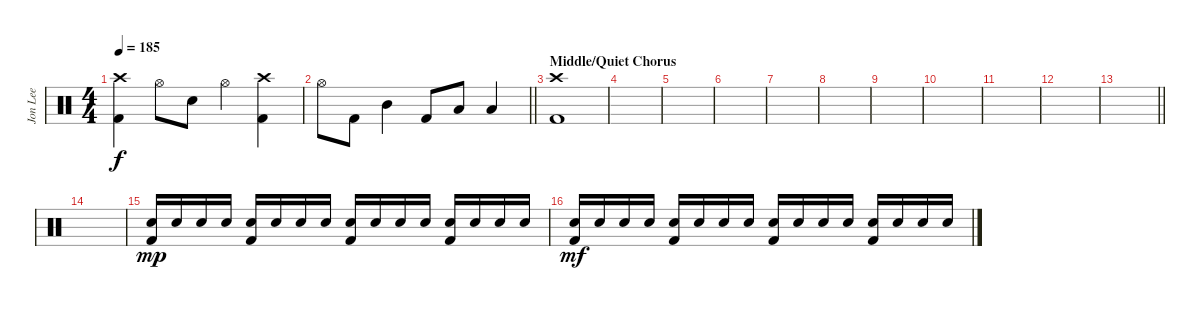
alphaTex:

\track ("Jon Lee" "Jon Lee") {instrument percussion bank 10}
\staff {score}
\articulation defaults
\ts (4 4)
\tempo 185
\clef neutral
\ks c
("Crash high (hit)" "Kick (hit) 2").4{dy f} "Hi-Hat (open)".8 "Snare (hit) 2".8 "Hi-Hat (open)".4 ("Kick (hit) 2" "Crash high (hit)").4 |
\barLineRight lightlight "Hi-Hat (open)".8 "Kick (hit) 2".8 "Mid Tom (hit)".4 "Kick (hit) 2".8 "Low Floor Tom (hit)".8 "Low Floor Tom (hit)".4
|
\section ("" "Middle/Quiet Chorus")
("Kick (hit) 2" "Crash high (hit)").1 |
|
|
|
|
|
|
|
|
|
\barLineRight lightlight
|
|
("Snare (hit) 2" "Kick (hit) 2").16{dy mp} "Snare (hit) 2".16 "Snare (hit) 2".16 "Snare (hit) 2".16 ("Snare (hit) 2" "Kick (hit) 2").16 "Snare (hit) 2".16 "Snare (hit) 2".16 "Snare (hit) 2".16 ("Snare (hit) 2" "Kick (hit) 2").16 "Snare (hit) 2".16 "Snare (hit) 2".16 "Snare (hit) 2".16 ("Snare (hit) 2" "Kick (hit) 2").16 "Snare (hit) 2".16 "Snare (hit) 2".16 "Snare (hit) 2".16 |
("Snare (hit) 2" "Kick (hit) 2").16{dy mf} "Snare (hit) 2".16 "Snare (hit) 2".16 "Snare (hit) 2".16 ("Snare (hit) 2" "Kick (hit) 2").16 "Snare (hit) 2".16 "Snare (hit) 2".16 "Snare (hit) 2".16 ("Snare (hit) 2" "Kick (hit) 2").16 "Snare (hit) 2".16 "Snare (hit) 2".16 "Snare (hit) 2".16 ("Snare (hit) 2" "Kick (hit) 2").16 "Snare (hit) 2".16 "Snare (hit) 2".16 "Snare (hit) 2".16
